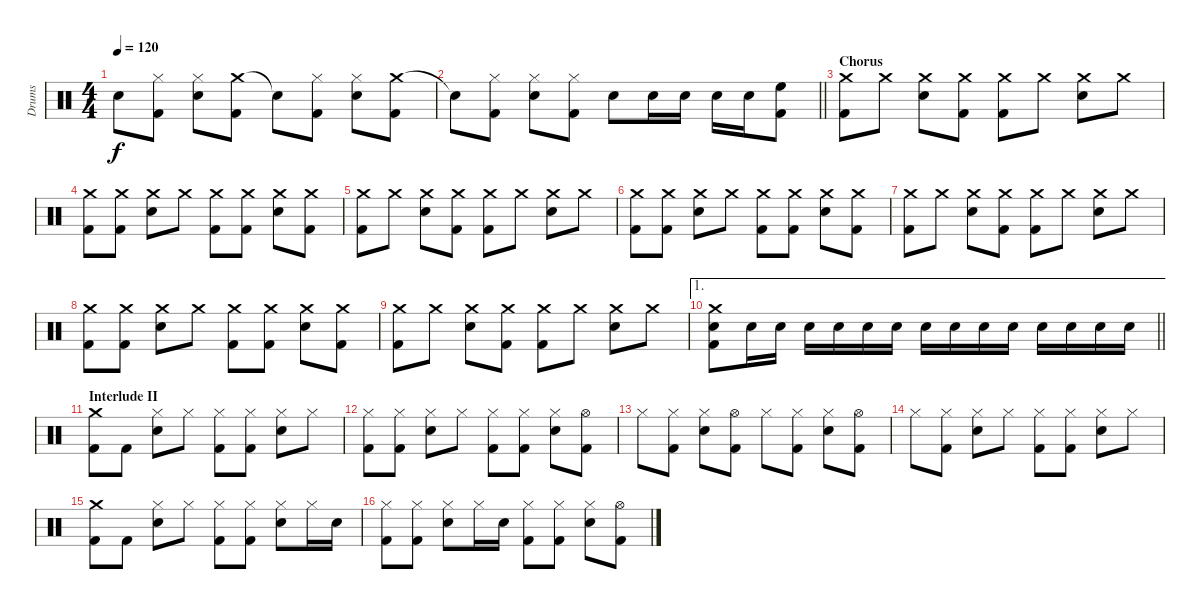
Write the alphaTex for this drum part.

\track ("Drums" "Drums") {instrument percussion}
\staff {score}
\articulation defaults
\ts (4 4)
\tempo 120
\clef neutral
\ks c "Snare (hit)"{t}.8{dy f}
("Hi-Hat (closed)" "Kick (hit) 2").8 ("Hi-Hat (closed)" "Snare (hit) 2").8 ("Crash medium (hit)" "Kick (hit) 2").8 "Snare (hit)"{t}.8 ("Hi-Hat (closed)" "Kick (hit) 2").8 ("Hi-Hat (closed)" "Snare (hit) 2").8 ("Crash medium (hit)" "Kick (hit) 2").8 |
\barLineRight lightlight "Snare (hit)"{t}.8
("Hi-Hat (closed)" "Kick (hit) 2").8 ("Hi-Hat (closed)" "Snare (hit) 2").8 ("Hi-Hat (closed)" "Kick (hit) 2").8 "Snare (hit) 2".8 "Snare (hit) 2".16 "Snare (hit) 2".16 "Snare (hit) 2".16 "Snare (hit) 2".16 ("High Floor Tom (hit)" "Kick (hit) 2").8 |
\section ("" "Chorus")
("Crash medium (hit)" "Kick (hit) 2").8 "Crash medium (hit)".8 ("Crash medium (hit)" "Snare (hit) 2").8 ("Crash medium (hit)" "Kick (hit) 2").8 ("Crash medium (hit)" "Kick (hit) 2").8 "Crash medium (hit)".8 ("Crash medium (hit)" "Snare (hit) 2").8 "Crash medium (hit)".8 |
("Crash medium (hit)" "Kick (hit) 2").8 ("Crash medium (hit)" "Kick (hit) 2").8 ("Crash medium (hit)" "Snare (hit) 2").8 "Crash medium (hit)".8 ("Crash medium (hit)" "Kick (hit) 2").8 ("Crash medium (hit)" "Kick (hit) 2").8 ("Crash medium (hit)" "Snare (hit) 2").8 ("Crash medium (hit)" "Kick (hit) 2").8 |
("Crash medium (hit)" "Kick (hit) 2").8 "Crash medium (hit)".8 ("Crash medium (hit)" "Snare (hit) 2").8 ("Crash medium (hit)" "Kick (hit) 2").8 ("Crash medium (hit)" "Kick (hit) 2").8 "Crash medium (hit)".8 ("Crash medium (hit)" "Snare (hit) 2").8 "Crash medium (hit)".8 |
("Crash medium (hit)" "Kick (hit) 2").8 ("Crash medium (hit)" "Kick (hit) 2").8 ("Crash medium (hit)" "Snare (hit) 2").8 "Crash medium (hit)".8 ("Crash medium (hit)" "Kick (hit) 2").8 ("Crash medium (hit)" "Kick (hit) 2").8 ("Crash medium (hit)" "Snare (hit) 2").8 ("Crash medium (hit)" "Kick (hit) 2").8 |
("Crash medium (hit)" "Kick (hit) 2").8 "Crash medium (hit)".8 ("Crash medium (hit)" "Snare (hit) 2").8 ("Crash medium (hit)" "Kick (hit) 2").8 ("Crash medium (hit)" "Kick (hit) 2").8 "Crash medium (hit)".8 ("Crash medium (hit)" "Snare (hit) 2").8 "Crash medium (hit)".8 |
("Crash medium (hit)" "Kick (hit) 2").8 ("Crash medium (hit)" "Kick (hit) 2").8 ("Crash medium (hit)" "Snare (hit) 2").8 "Crash medium (hit)".8 ("Crash medium (hit)" "Kick (hit) 2").8 ("Crash medium (hit)" "Kick (hit) 2").8 ("Crash medium (hit)" "Snare (hit) 2").8 ("Crash medium (hit)" "Kick (hit) 2").8 |
("Crash medium (hit)" "Kick (hit) 2").8 "Crash medium (hit)".8 ("Crash medium (hit)" "Snare (hit) 2").8 ("Crash medium (hit)" "Kick (hit) 2").8 ("Crash medium (hit)" "Kick (hit) 2").8 "Crash medium (hit)".8 ("Crash medium (hit)" "Snare (hit) 2").8 "Crash medium (hit)".8 |
\ae 1
\barLineRight lightlight
("Crash medium (hit)" "Snare (hit) 2" "Kick (hit) 2").8 "Snare (hit) 2".16 "Snare (hit) 2".16 "Snare (hit) 2".16 "Snare (hit) 2".16 "Snare (hit) 2".16 "Snare (hit) 2".16 "Snare (hit) 2".16 "Snare (hit) 2".16 "Snare (hit) 2".16 "Snare (hit) 2".16 "Snare (hit) 2".16 "Snare (hit) 2".16 "Snare (hit) 2".16 "Snare (hit) 2".16 |
\section ("" "Interlude II")
("Crash medium (hit)" "Kick (hit) 2").8 "Kick (hit) 2".8 ("Hi-Hat (closed)" "Snare (hit) 2").8 "Hi-Hat (closed)".8 ("Hi-Hat (closed)" "Kick (hit) 2").8 ("Hi-Hat (closed)" "Kick (hit) 2").8 ("Hi-Hat (closed)" "Snare (hit) 2").8 "Hi-Hat (closed)".8 |
("Hi-Hat (closed)" "Kick (hit) 2").8 ("Hi-Hat (closed)" "Kick (hit) 2").8 ("Hi-Hat (closed)" "Snare (hit) 2").8 "Hi-Hat (closed)".8 ("Hi-Hat (closed)" "Kick (hit) 2").8 ("Hi-Hat (closed)" "Kick (hit) 2").8 ("Hi-Hat (closed)" "Snare (hit) 2").8 ("Hi-Hat (open)" "Kick (hit) 2").8 |
"Hi-Hat (closed)".8 ("Hi-Hat (closed)" "Kick (hit) 2").8 ("Hi-Hat (closed)" "Snare (hit) 2").8 ("Hi-Hat (open)" "Kick (hit) 2").8 "Hi-Hat (closed)".8 ("Hi-Hat (closed)" "Kick (hit) 2").8 ("Hi-Hat (closed)" "Snare (hit) 2").8 ("Hi-Hat (open)" "Kick (hit) 2").8 |
"Hi-Hat (closed)".8 ("Hi-Hat (closed)" "Kick (hit) 2").8 ("Hi-Hat (closed)" "Snare (hit) 2").8 "Hi-Hat (closed)".8 ("Hi-Hat (closed)" "Kick (hit) 2").8 ("Hi-Hat (closed)" "Kick (hit) 2").8 ("Hi-Hat (closed)" "Snare (hit) 2").8 "Hi-Hat (closed)".8 |
("Crash medium (hit)" "Kick (hit) 2").8 "Kick (hit) 2".8 ("Hi-Hat (closed)" "Snare (hit) 2").8 "Hi-Hat (closed)".8 ("Hi-Hat (closed)" "Kick (hit) 2").8 ("Hi-Hat (closed)" "Kick (hit) 2").8 ("Hi-Hat (closed)" "Snare (hit) 2").8 "Hi-Hat (closed)".16 "Snare (hit) 2".16 |
("Hi-Hat (closed)" "Kick (hit) 2").8 ("Hi-Hat (closed)" "Kick (hit) 2").8 ("Hi-Hat (closed)" "Snare (hit) 2").8 "Hi-Hat (closed)".16 "Snare (hit) 2".16 ("Hi-Hat (closed)" "Kick (hit) 2").8 ("Hi-Hat (closed)" "Kick (hit) 2").8 ("Hi-Hat (closed)" "Snare (hit) 2").8 ("Hi-Hat (open)" "Kick (hit) 2").8
